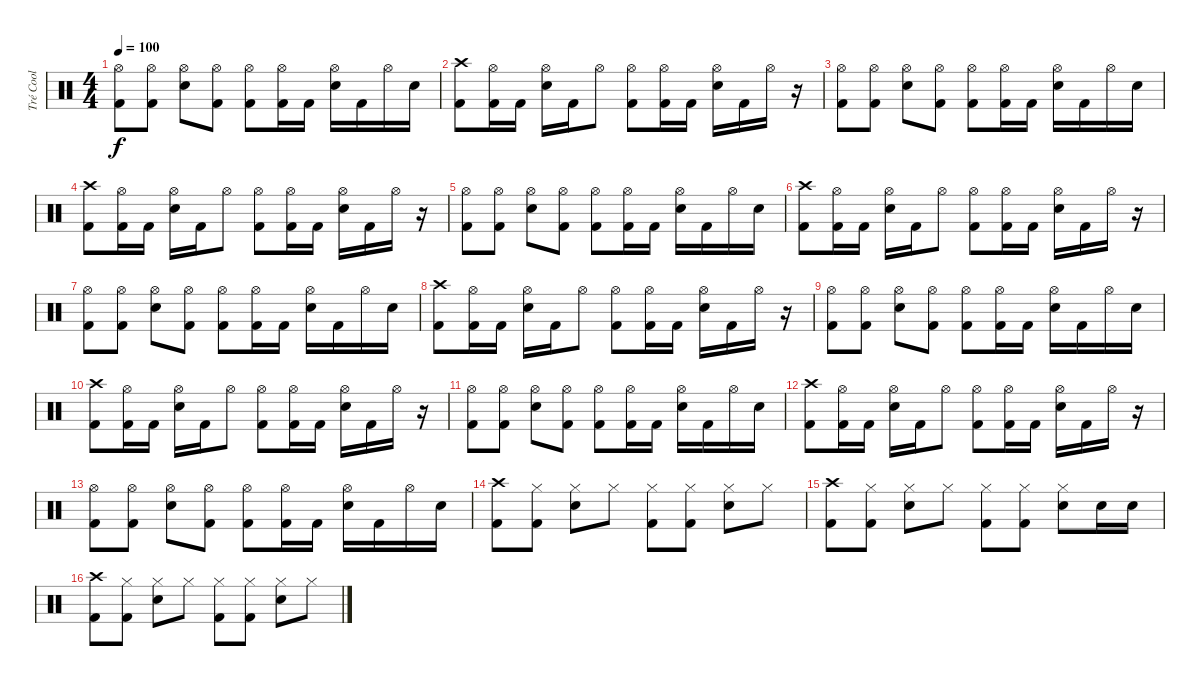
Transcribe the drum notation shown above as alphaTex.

\track ("Tré Cool" "Tré Cool") {instrument percussion}
\staff {score}
\articulation defaults
\ts (4 4)
\tempo 100
\clef neutral
\ks c
("Hi-Hat (open)" "Kick (hit) 2").8{dy f} ("Hi-Hat (open)" "Kick (hit) 2").8 ("Hi-Hat (open)" "Electric Snare (hit)").8 ("Hi-Hat (open)" "Kick (hit) 2").8 ("Hi-Hat (open)" "Kick (hit) 2").8 ("Hi-Hat (open)" "Kick (hit) 2").16 "Kick (hit) 2".16 ("Hi-Hat (open)" "Electric Snare (hit)").16 "Kick (hit) 2".16 "Hi-Hat (open)".16 "Electric Snare (hit)".16 |
("Crash high (hit)" "Kick (hit) 2").8 ("Hi-Hat (open)" "Kick (hit) 2").16 "Kick (hit) 2".16 ("Hi-Hat (open)" "Electric Snare (hit)").16 "Kick (hit) 2".16 "Hi-Hat (open)".8 ("Hi-Hat (open)" "Kick (hit) 2").8 ("Hi-Hat (open)" "Kick (hit) 2").16 "Kick (hit) 2".16 ("Hi-Hat (open)" "Electric Snare (hit)").16 "Kick (hit) 2".16 "Hi-Hat (open)".16 r.16 |
("Hi-Hat (open)" "Kick (hit) 2").8 ("Hi-Hat (open)" "Kick (hit) 2").8 ("Hi-Hat (open)" "Electric Snare (hit)").8 ("Hi-Hat (open)" "Kick (hit) 2").8 ("Hi-Hat (open)" "Kick (hit) 2").8 ("Hi-Hat (open)" "Kick (hit) 2").16 "Kick (hit) 2".16 ("Hi-Hat (open)" "Electric Snare (hit)").16 "Kick (hit) 2".16 "Hi-Hat (open)".16 "Electric Snare (hit)".16 |
("Crash high (hit)" "Kick (hit) 2").8 ("Hi-Hat (open)" "Kick (hit) 2").16 "Kick (hit) 2".16 ("Hi-Hat (open)" "Electric Snare (hit)").16 "Kick (hit) 2".16 "Hi-Hat (open)".8 ("Hi-Hat (open)" "Kick (hit) 2").8 ("Hi-Hat (open)" "Kick (hit) 2").16 "Kick (hit) 2".16 ("Hi-Hat (open)" "Electric Snare (hit)").16 "Kick (hit) 2".16 "Hi-Hat (open)".16 r.16 |
("Hi-Hat (open)" "Kick (hit) 2").8 ("Hi-Hat (open)" "Kick (hit) 2").8 ("Hi-Hat (open)" "Electric Snare (hit)").8 ("Hi-Hat (open)" "Kick (hit) 2").8 ("Hi-Hat (open)" "Kick (hit) 2").8 ("Hi-Hat (open)" "Kick (hit) 2").16 "Kick (hit) 2".16 ("Hi-Hat (open)" "Electric Snare (hit)").16 "Kick (hit) 2".16 "Hi-Hat (open)".16 "Electric Snare (hit)".16 |
("Crash high (hit)" "Kick (hit) 2").8 ("Hi-Hat (open)" "Kick (hit) 2").16 "Kick (hit) 2".16 ("Hi-Hat (open)" "Electric Snare (hit)").16 "Kick (hit) 2".16 "Hi-Hat (open)".8 ("Hi-Hat (open)" "Kick (hit) 2").8 ("Hi-Hat (open)" "Kick (hit) 2").16 "Kick (hit) 2".16 ("Hi-Hat (open)" "Electric Snare (hit)").16 "Kick (hit) 2".16 "Hi-Hat (open)".16 r.16 |
("Hi-Hat (open)" "Kick (hit) 2").8 ("Hi-Hat (open)" "Kick (hit) 2").8 ("Hi-Hat (open)" "Electric Snare (hit)").8 ("Hi-Hat (open)" "Kick (hit) 2").8 ("Hi-Hat (open)" "Kick (hit) 2").8 ("Hi-Hat (open)" "Kick (hit) 2").16 "Kick (hit) 2".16 ("Hi-Hat (open)" "Electric Snare (hit)").16 "Kick (hit) 2".16 "Hi-Hat (open)".16 "Electric Snare (hit)".16 |
("Crash high (hit)" "Kick (hit) 2").8 ("Hi-Hat (open)" "Kick (hit) 2").16 "Kick (hit) 2".16 ("Hi-Hat (open)" "Electric Snare (hit)").16 "Kick (hit) 2".16 "Hi-Hat (open)".8 ("Hi-Hat (open)" "Kick (hit) 2").8 ("Hi-Hat (open)" "Kick (hit) 2").16 "Kick (hit) 2".16 ("Hi-Hat (open)" "Electric Snare (hit)").16 "Kick (hit) 2".16 "Hi-Hat (open)".16 r.16 |
("Hi-Hat (open)" "Kick (hit) 2").8 ("Hi-Hat (open)" "Kick (hit) 2").8 ("Hi-Hat (open)" "Electric Snare (hit)").8 ("Hi-Hat (open)" "Kick (hit) 2").8 ("Hi-Hat (open)" "Kick (hit) 2").8 ("Hi-Hat (open)" "Kick (hit) 2").16 "Kick (hit) 2".16 ("Hi-Hat (open)" "Electric Snare (hit)").16 "Kick (hit) 2".16 "Hi-Hat (open)".16 "Electric Snare (hit)".16 |
("Crash high (hit)" "Kick (hit) 2").8 ("Hi-Hat (open)" "Kick (hit) 2").16 "Kick (hit) 2".16 ("Hi-Hat (open)" "Electric Snare (hit)").16 "Kick (hit) 2".16 "Hi-Hat (open)".8 ("Hi-Hat (open)" "Kick (hit) 2").8 ("Hi-Hat (open)" "Kick (hit) 2").16 "Kick (hit) 2".16 ("Hi-Hat (open)" "Electric Snare (hit)").16 "Kick (hit) 2".16 "Hi-Hat (open)".16 r.16 |
("Hi-Hat (open)" "Kick (hit) 2").8 ("Hi-Hat (open)" "Kick (hit) 2").8 ("Hi-Hat (open)" "Electric Snare (hit)").8 ("Hi-Hat (open)" "Kick (hit) 2").8 ("Hi-Hat (open)" "Kick (hit) 2").8 ("Hi-Hat (open)" "Kick (hit) 2").16 "Kick (hit) 2".16 ("Hi-Hat (open)" "Electric Snare (hit)").16 "Kick (hit) 2".16 "Hi-Hat (open)".16 "Electric Snare (hit)".16 |
("Crash high (hit)" "Kick (hit) 2").8 ("Hi-Hat (open)" "Kick (hit) 2").16 "Kick (hit) 2".16 ("Hi-Hat (open)" "Electric Snare (hit)").16 "Kick (hit) 2".16 "Hi-Hat (open)".8 ("Hi-Hat (open)" "Kick (hit) 2").8 ("Hi-Hat (open)" "Kick (hit) 2").16 "Kick (hit) 2".16 ("Hi-Hat (open)" "Electric Snare (hit)").16 "Kick (hit) 2".16 "Hi-Hat (open)".16 r.16 |
("Hi-Hat (open)" "Kick (hit) 2").8 ("Hi-Hat (open)" "Kick (hit) 2").8 ("Hi-Hat (open)" "Electric Snare (hit)").8 ("Hi-Hat (open)" "Kick (hit) 2").8 ("Hi-Hat (open)" "Kick (hit) 2").8 ("Hi-Hat (open)" "Kick (hit) 2").16 "Kick (hit) 2".16 ("Hi-Hat (open)" "Electric Snare (hit)").16 "Kick (hit) 2".16 "Hi-Hat (open)".16 "Electric Snare (hit)".16 |
("Crash high (hit)" "Kick (hit) 2").8 ("Hi-Hat (closed)" "Kick (hit) 2").8 ("Hi-Hat (closed)" "Electric Snare (hit)").8 "Hi-Hat (closed)".8 ("Hi-Hat (closed)" "Kick (hit) 2").8 ("Hi-Hat (closed)" "Kick (hit) 2").8 ("Hi-Hat (closed)" "Electric Snare (hit)").8 "Hi-Hat (closed)".8 |
("Crash high (hit)" "Kick (hit) 2").8 ("Hi-Hat (closed)" "Kick (hit) 2").8 ("Hi-Hat (closed)" "Electric Snare (hit)").8 "Hi-Hat (closed)".8 ("Hi-Hat (closed)" "Kick (hit) 2").8 ("Hi-Hat (closed)" "Kick (hit) 2").8 ("Hi-Hat (closed)" "Electric Snare (hit)").8 "Electric Snare (hit)".16 "Electric Snare (hit)".16 |
("Crash high (hit)" "Kick (hit) 2").8 ("Hi-Hat (closed)" "Kick (hit) 2").8 ("Hi-Hat (closed)" "Electric Snare (hit)").8 "Hi-Hat (closed)".8 ("Hi-Hat (closed)" "Kick (hit) 2").8 ("Hi-Hat (closed)" "Kick (hit) 2").8 ("Hi-Hat (closed)" "Electric Snare (hit)").8 "Hi-Hat (closed)".8
